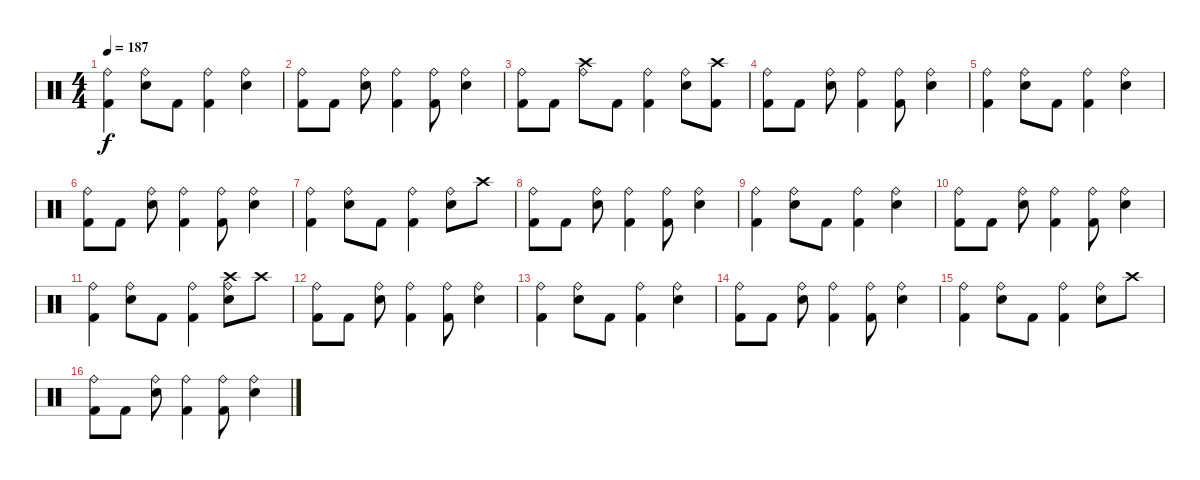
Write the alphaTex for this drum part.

\track "" {instrument percussion}
\staff {score}
\articulation defaults
\ts (4 4)
\tempo 187
\clef neutral
\ks c
("Ride (bell)" "Kick (hit) 2").4{dy f} ("Ride (bell)" "Electric Snare (hit)").8 "Kick (hit) 2".8 ("Ride (bell)" "Kick (hit) 2").4 ("Ride (bell)" "Electric Snare (hit)").4 |
("Ride (bell)" "Kick (hit) 2").8 "Kick (hit) 2".8 ("Ride (bell)" "Electric Snare (hit)").8 ("Ride (bell)" "Kick (hit) 2").4 ("Ride (bell)" "Kick (hit) 2").8 ("Ride (bell)" "Electric Snare (hit)").4 |
("Ride (bell)" "Kick (hit) 2").8 "Kick (hit) 2".8 ("Ride (bell)" "Crash high (hit)").8 "Kick (hit) 2".8 ("Ride (bell)" "Kick (hit) 2").4 ("Ride (bell)" "Electric Snare (hit)").8 ("Crash high (hit)" "Kick (hit) 2").8 |
("Ride (bell)" "Kick (hit) 2").8 "Kick (hit) 2".8 ("Ride (bell)" "Electric Snare (hit)").8 ("Ride (bell)" "Kick (hit) 2").4 ("Ride (bell)" "Kick (hit) 2").8 ("Ride (bell)" "Electric Snare (hit)").4 |
("Ride (bell)" "Kick (hit) 2").4 ("Ride (bell)" "Electric Snare (hit)").8 "Kick (hit) 2".8 ("Ride (bell)" "Kick (hit) 2").4 ("Ride (bell)" "Electric Snare (hit)").4 |
("Ride (bell)" "Kick (hit) 2").8 "Kick (hit) 2".8 ("Ride (bell)" "Electric Snare (hit)").8 ("Ride (bell)" "Kick (hit) 2").4 ("Ride (bell)" "Kick (hit) 2").8 ("Ride (bell)" "Electric Snare (hit)").4 |
("Ride (bell)" "Kick (hit) 2").4 ("Ride (bell)" "Electric Snare (hit)").8 "Kick (hit) 2".8 ("Ride (bell)" "Kick (hit) 2").4 ("Ride (bell)" "Electric Snare (hit)").8 "Crash high (hit)".8 |
("Ride (bell)" "Kick (hit) 2").8 "Kick (hit) 2".8 ("Ride (bell)" "Electric Snare (hit)").8 ("Ride (bell)" "Kick (hit) 2").4 ("Ride (bell)" "Kick (hit) 2").8 ("Ride (bell)" "Electric Snare (hit)").4 |
("Ride (bell)" "Kick (hit) 2").4 ("Ride (bell)" "Electric Snare (hit)").8 "Kick (hit) 2".8 ("Ride (bell)" "Kick (hit) 2").4 ("Ride (bell)" "Electric Snare (hit)").4 |
("Ride (bell)" "Kick (hit) 2").8 "Kick (hit) 2".8 ("Ride (bell)" "Electric Snare (hit)").8 ("Ride (bell)" "Kick (hit) 2").4 ("Ride (bell)" "Kick (hit) 2").8 ("Ride (bell)" "Electric Snare (hit)").4 |
("Ride (bell)" "Kick (hit) 2").4 ("Ride (bell)" "Electric Snare (hit)").8 "Kick (hit) 2".8 ("Ride (bell)" "Kick (hit) 2").4 ("Ride (bell)" "Crash high (hit)" "Electric Snare (hit)").8 "Crash high (hit)".8 |
("Ride (bell)" "Kick (hit) 2").8 "Kick (hit) 2".8 ("Ride (bell)" "Electric Snare (hit)").8 ("Ride (bell)" "Kick (hit) 2").4 ("Ride (bell)" "Kick (hit) 2").8 ("Ride (bell)" "Electric Snare (hit)").4 |
("Ride (bell)" "Kick (hit) 2").4 ("Ride (bell)" "Electric Snare (hit)").8 "Kick (hit) 2".8 ("Ride (bell)" "Kick (hit) 2").4 ("Ride (bell)" "Electric Snare (hit)").4 |
("Ride (bell)" "Kick (hit) 2").8 "Kick (hit) 2".8 ("Ride (bell)" "Electric Snare (hit)").8 ("Ride (bell)" "Kick (hit) 2").4 ("Ride (bell)" "Kick (hit) 2").8 ("Ride (bell)" "Electric Snare (hit)").4 |
("Ride (bell)" "Kick (hit) 2").4 ("Ride (bell)" "Electric Snare (hit)").8 "Kick (hit) 2".8 ("Ride (bell)" "Kick (hit) 2").4 ("Ride (bell)" "Electric Snare (hit)").8 "Crash high (hit)".8 |
("Ride (bell)" "Kick (hit) 2").8 "Kick (hit) 2".8 ("Ride (bell)" "Electric Snare (hit)").8 ("Ride (bell)" "Kick (hit) 2").4 ("Ride (bell)" "Kick (hit) 2").8 ("Ride (bell)" "Electric Snare (hit)").4
